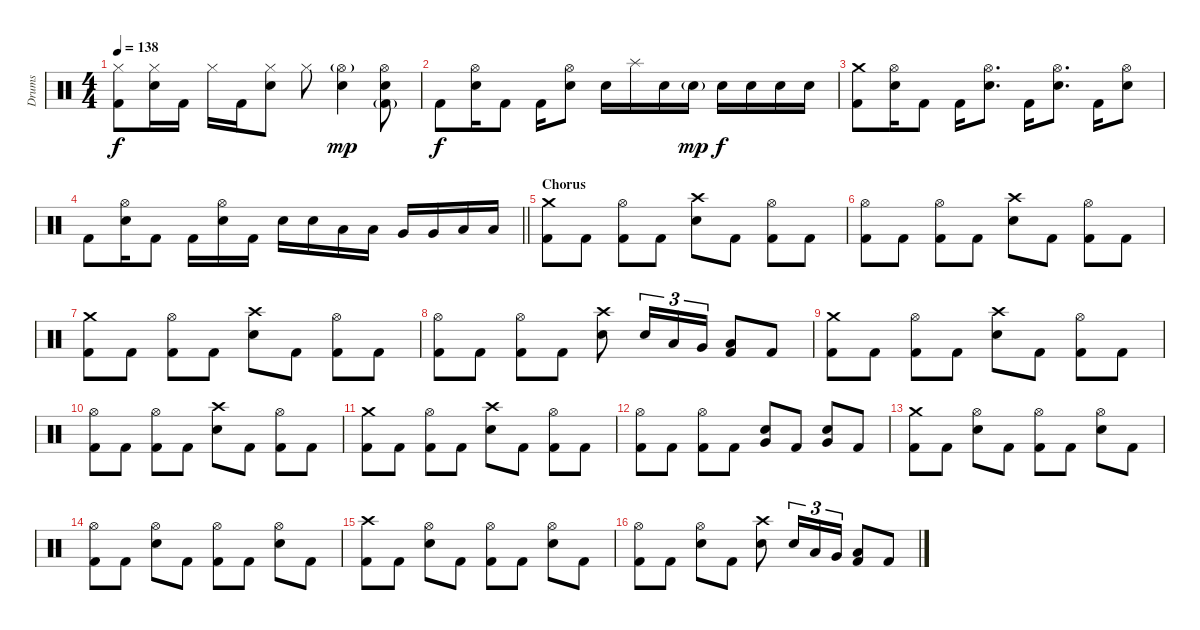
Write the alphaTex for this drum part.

\track ("Drums" "Drums") {instrument percussion}
\staff {score}
\articulation defaults
\ts (4 4)
\tempo 138
\clef neutral
\ks c
("Hi-Hat (closed)" "Kick (hit) 2").8{dy f} ("Hi-Hat (closed)" "Electric Snare (hit)").16 "Kick (hit) 2".16 "Hi-Hat (closed)".16 "Kick (hit) 2".16 ("Hi-Hat (closed)" "Electric Snare (hit)").8 "Hi-Hat (closed)".8 ("Hi-Hat (open)"{g} "Electric Snare (hit)").4{dy mp} ("Hi-Hat (open)" "Electric Snare (hit)" "Kick (hit) 2"{g}).8 |
"Kick (hit) 2".8{dy f} ("Hi-Hat (open)" "Electric Snare (hit)").16 "Kick (hit) 2".8 "Kick (hit) 2".16 ("Hi-Hat (open)" "Electric Snare (hit)").8 "Electric Snare (hit)".16 "Splash (hit)".16 "Electric Snare (hit)".16 "Electric Snare (hit)"{g}.16{dy mp} "Electric Snare (hit)".16{dy f} "Electric Snare (hit)".16 "Electric Snare (hit)".16 "Electric Snare (hit)".16 |
("Crash medium (hit)" "Kick (hit) 2").8 ("Hi-Hat (open)" "Electric Snare (hit)").16 "Kick (hit) 2".8 "Kick (hit) 2".16 ("Hi-Hat (open)" "Electric Snare (hit)").8{d} "Kick (hit) 2".16 ("Hi-Hat (open)" "Electric Snare (hit)").8{d} "Kick (hit) 2".16 ("Hi-Hat (open)" "Electric Snare (hit)").8 |
\barLineRight lightlight "Kick (hit) 2".8
("Hi-Hat (open)" "Electric Snare (hit)").16 "Kick (hit) 2".8 "Kick (hit) 2".16 ("Hi-Hat (open)" "Electric Snare (hit)").16 "Kick (hit) 2".16 "Electric Snare (hit)".16 "Electric Snare (hit)".16 "Low Tom (hit)".16 "Low Tom (hit)".16 "Very Low Tom (hit)".16 "Very Low Tom (hit)".16 "Low Floor Tom (hit)".16 "Low Floor Tom (hit)".16 |
\section ("" "Chorus")
("Crash medium (hit)" "Kick (hit) 2").8 "Kick (hit) 2".8 ("Hi-Hat (open)" "Kick (hit) 2").8 "Kick (hit) 2".8 ("Crash high (hit)" "Electric Snare (hit)").8 "Kick (hit) 2".8 ("Hi-Hat (open)" "Kick (hit) 2").8 "Kick (hit) 2".8 |
("Hi-Hat (open)" "Kick (hit) 2").8 "Kick (hit) 2".8 ("Hi-Hat (open)" "Kick (hit) 2").8 "Kick (hit) 2".8 ("Crash high (hit)" "Electric Snare (hit)").8 "Kick (hit) 2".8 ("Hi-Hat (open)" "Kick (hit) 2").8 "Kick (hit) 2".8 |
("Crash medium (hit)" "Kick (hit) 2").8 "Kick (hit) 2".8 ("Hi-Hat (open)" "Kick (hit) 2").8 "Kick (hit) 2".8 ("Crash high (hit)" "Electric Snare (hit)").8 "Kick (hit) 2".8 ("Hi-Hat (open)" "Kick (hit) 2").8 "Kick (hit) 2".8 |
("Hi-Hat (open)" "Kick (hit) 2").8 "Kick (hit) 2".8 ("Hi-Hat (open)" "Kick (hit) 2").8 "Kick (hit) 2".8 ("Crash high (hit)" "Electric Snare (hit)").8 "Electric Snare (hit)".16{tu (3 2)} "Low Tom (hit)".16{tu (3 2)} "Very Low Tom (hit)".16{tu (3 2)} ("Low Floor Tom (hit)" "Kick (hit) 2").8 "Kick (hit) 2".8 |
("Crash medium (hit)" "Kick (hit) 2").8 "Kick (hit) 2".8 ("Hi-Hat (open)" "Kick (hit) 2").8 "Kick (hit) 2".8 ("Crash high (hit)" "Electric Snare (hit)").8 "Kick (hit) 2".8 ("Hi-Hat (open)" "Kick (hit) 2").8 "Kick (hit) 2".8 |
("Hi-Hat (open)" "Kick (hit) 2").8 "Kick (hit) 2".8 ("Hi-Hat (open)" "Kick (hit) 2").8 "Kick (hit) 2".8 ("Crash high (hit)" "Electric Snare (hit)").8 "Kick (hit) 2".8 ("Hi-Hat (open)" "Kick (hit) 2").8 "Kick (hit) 2".8 |
("Crash medium (hit)" "Kick (hit) 2").8 "Kick (hit) 2".8 ("Hi-Hat (open)" "Kick (hit) 2").8 "Kick (hit) 2".8 ("Crash high (hit)" "Electric Snare (hit)").8 "Kick (hit) 2".8 ("Hi-Hat (open)" "Kick (hit) 2").8 "Kick (hit) 2".8 |
("Hi-Hat (open)" "Kick (hit) 2").8 "Kick (hit) 2".8 ("Hi-Hat (open)" "Kick (hit) 2").8 "Kick (hit) 2".8 ("Very Low Tom (hit)" "Electric Snare (hit)").8 "Kick (hit) 2".8 ("Very Low Tom (hit)" "Electric Snare (hit)").8 "Kick (hit) 2".8 |
("Crash medium (hit)" "Kick (hit) 2").8 "Kick (hit) 2".8 ("Hi-Hat (open)" "Electric Snare (hit)").8 "Kick (hit) 2".8 ("Hi-Hat (open)" "Kick (hit) 2").8 "Kick (hit) 2".8 ("Hi-Hat (open)" "Electric Snare (hit)").8 "Kick (hit) 2".8 |
("Hi-Hat (open)" "Kick (hit) 2").8 "Kick (hit) 2".8 ("Hi-Hat (open)" "Electric Snare (hit)").8 "Kick (hit) 2".8 ("Hi-Hat (open)" "Kick (hit) 2").8 "Kick (hit) 2".8 ("Hi-Hat (open)" "Electric Snare (hit)").8 "Kick (hit) 2".8 |
("Crash high (hit)" "Kick (hit) 2").8 "Kick (hit) 2".8 ("Hi-Hat (open)" "Electric Snare (hit)").8 "Kick (hit) 2".8 ("Hi-Hat (open)" "Kick (hit) 2").8 "Kick (hit) 2".8 ("Hi-Hat (open)" "Electric Snare (hit)").8 "Kick (hit) 2".8 |
("Hi-Hat (open)" "Kick (hit) 2").8 "Kick (hit) 2".8 ("Hi-Hat (open)" "Electric Snare (hit)").8 "Kick (hit) 2".8 ("Crash high (hit)" "Electric Snare (hit)").8 "Electric Snare (hit)".16{tu (3 2)} "Low Tom (hit)".16{tu (3 2)} "Very Low Tom (hit)".16{tu (3 2)} ("Low Floor Tom (hit)" "Kick (hit) 2").8 "Kick (hit) 2".8
